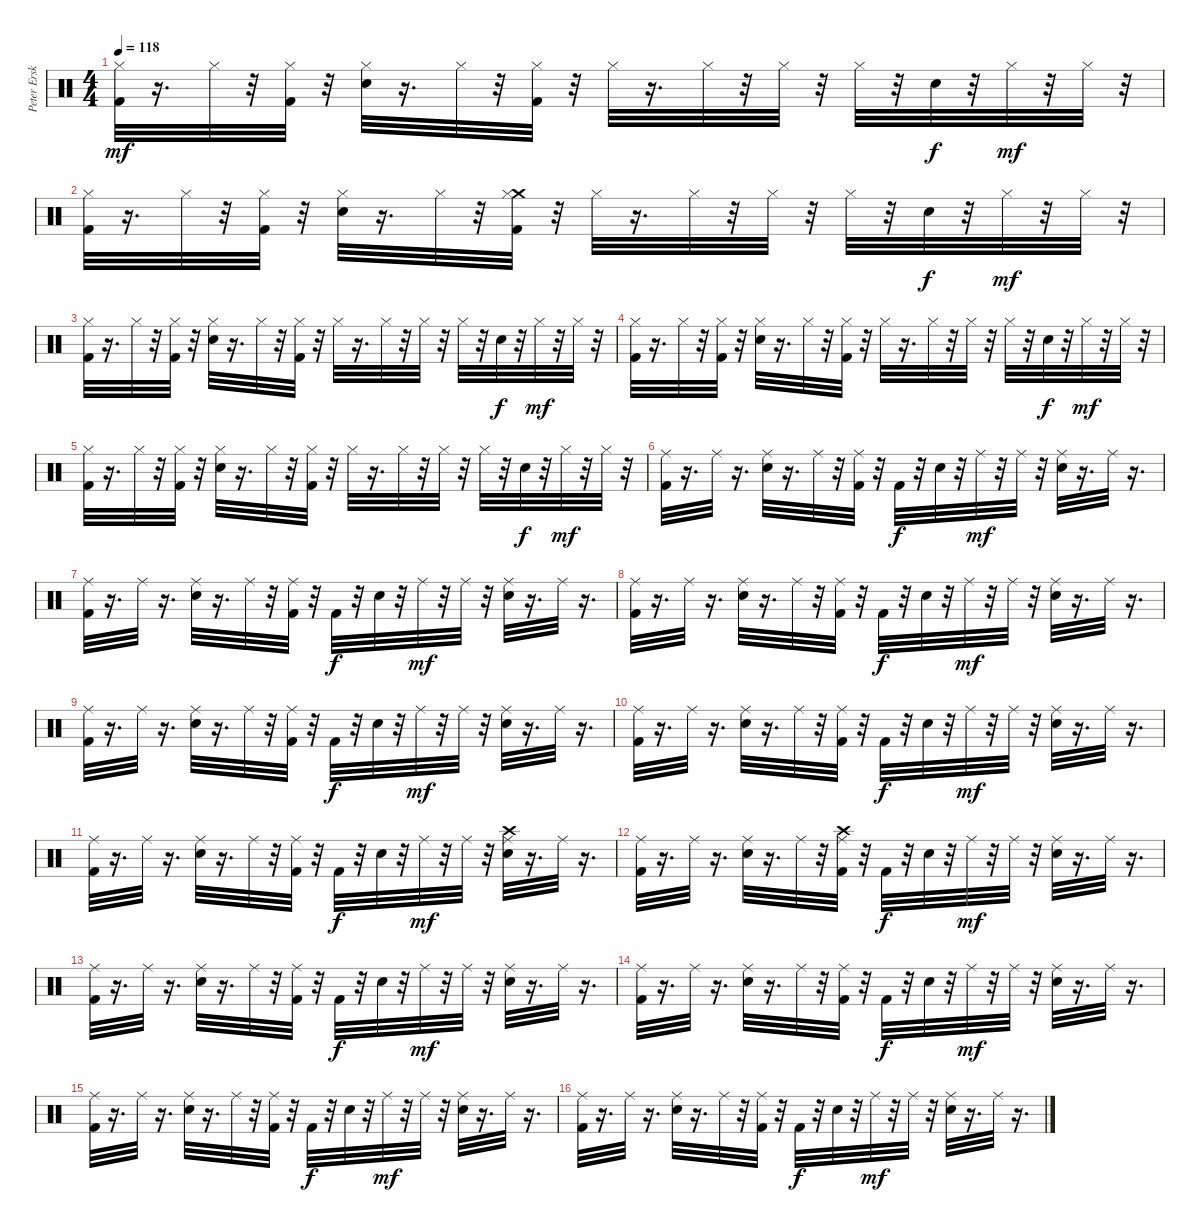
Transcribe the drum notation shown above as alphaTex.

\track ("Peter Erskine" "Peter Ersk") {instrument percussion}
\staff {score}
\articulation defaults
\ts (4 4)
\tempo 118
\clef neutral
\ks c
("Kick (hit) 2" "Hi-Hat (closed)").32{dy mf} r.16{d} "Hi-Hat (closed)".32 r.32 ("Kick (hit) 2" "Hi-Hat (closed)").32 r.32 ("Electric Snare (hit)" "Hi-Hat (closed)").32 r.16{d} "Hi-Hat (closed)".32 r.32 ("Kick (hit) 2" "Hi-Hat (closed)").32 r.32 "Hi-Hat (closed)".32 r.16{d} "Hi-Hat (closed)".32 r.32 "Hi-Hat (closed)".32 r.32 "Hi-Hat (closed)".32 r.32 "Electric Snare (hit)".32{dy f} r.32 "Hi-Hat (closed)".32{dy mf} r.32 "Hi-Hat (closed)".32 r.32 |
("Kick (hit) 2" "Hi-Hat (closed)").32 r.16{d} "Hi-Hat (closed)".32 r.32 ("Kick (hit) 2" "Hi-Hat (closed)").32 r.32 ("Electric Snare (hit)" "Hi-Hat (closed)").32 r.16{d} "Hi-Hat (closed)".32 r.32 ("Kick (hit) 2" "Crash medium (hit)" "Hi-Hat (closed)").32 r.32 "Hi-Hat (closed)".32 r.16{d} "Hi-Hat (closed)".32 r.32 "Hi-Hat (closed)".32 r.32 "Hi-Hat (closed)".32 r.32 "Electric Snare (hit)".32{dy f} r.32 "Hi-Hat (closed)".32{dy mf} r.32 "Hi-Hat (closed)".32 r.32 |
("Kick (hit) 2" "Hi-Hat (closed)").32 r.16{d} "Hi-Hat (closed)".32 r.32 ("Kick (hit) 2" "Hi-Hat (closed)").32 r.32 ("Electric Snare (hit)" "Hi-Hat (closed)").32 r.16{d} "Hi-Hat (closed)".32 r.32 ("Kick (hit) 2" "Hi-Hat (closed)").32 r.32 "Hi-Hat (closed)".32 r.16{d} "Hi-Hat (closed)".32 r.32 "Hi-Hat (closed)".32 r.32 "Hi-Hat (closed)".32 r.32 "Electric Snare (hit)".32{dy f} r.32 "Hi-Hat (closed)".32{dy mf} r.32 "Hi-Hat (closed)".32 r.32 |
("Kick (hit) 2" "Hi-Hat (closed)").32 r.16{d} "Hi-Hat (closed)".32 r.32 ("Kick (hit) 2" "Hi-Hat (closed)").32 r.32 ("Electric Snare (hit)" "Hi-Hat (closed)").32 r.16{d} "Hi-Hat (closed)".32 r.32 ("Kick (hit) 2" "Hi-Hat (closed)").32 r.32 "Hi-Hat (closed)".32 r.16{d} "Hi-Hat (closed)".32 r.32 "Hi-Hat (closed)".32 r.32 "Hi-Hat (closed)".32 r.32 "Electric Snare (hit)".32{dy f} r.32 "Hi-Hat (closed)".32{dy mf} r.32 "Hi-Hat (closed)".32 r.32 |
("Kick (hit) 2" "Hi-Hat (closed)").32 r.16{d} "Hi-Hat (closed)".32 r.32 ("Kick (hit) 2" "Hi-Hat (closed)").32 r.32 ("Electric Snare (hit)" "Hi-Hat (closed)").32 r.16{d} "Hi-Hat (closed)".32 r.32 ("Kick (hit) 2" "Hi-Hat (closed)").32 r.32 "Hi-Hat (closed)".32 r.16{d} "Hi-Hat (closed)".32 r.32 "Hi-Hat (closed)".32 r.32 "Hi-Hat (closed)".32 r.32 "Electric Snare (hit)".32{dy f} r.32 "Hi-Hat (closed)".32{dy mf} r.32 "Hi-Hat (closed)".32 r.32 |
("Kick (hit) 2" "Ride (middle)").32 r.16{d} "Ride (middle)".32 r.16{d} ("Electric Snare (hit)" "Ride (middle)").32 r.16{d} "Ride (middle)".32 r.32 ("Kick (hit) 2" "Ride (middle)").32 r.32 "Kick (hit) 2".32{dy f} r.32 "Electric Snare (hit)".32 r.32 "Ride (middle)".32{dy mf} r.32 "Ride (middle)".32 r.32 ("Electric Snare (hit)" "Ride (middle)").32 r.16{d} "Ride (middle)".32 r.16{d} |
("Kick (hit) 2" "Ride (middle)").32 r.16{d} "Ride (middle)".32 r.16{d} ("Electric Snare (hit)" "Ride (middle)").32 r.16{d} "Ride (middle)".32 r.32 ("Kick (hit) 2" "Ride (middle)").32 r.32 "Kick (hit) 2".32{dy f} r.32 "Electric Snare (hit)".32 r.32 "Ride (middle)".32{dy mf} r.32 "Ride (middle)".32 r.32 ("Electric Snare (hit)" "Ride (middle)").32 r.16{d} "Ride (middle)".32 r.16{d} |
("Kick (hit) 2" "Ride (middle)").32 r.16{d} "Ride (middle)".32 r.16{d} ("Electric Snare (hit)" "Ride (middle)").32 r.16{d} "Ride (middle)".32 r.32 ("Kick (hit) 2" "Ride (middle)").32 r.32 "Kick (hit) 2".32{dy f} r.32 "Electric Snare (hit)".32 r.32 "Ride (middle)".32{dy mf} r.32 "Ride (middle)".32 r.32 ("Electric Snare (hit)" "Ride (middle)").32 r.16{d} "Ride (middle)".32 r.16{d} |
("Kick (hit) 2" "Ride (middle)").32 r.16{d} "Ride (middle)".32 r.16{d} ("Electric Snare (hit)" "Ride (middle)").32 r.16{d} "Ride (middle)".32 r.32 ("Kick (hit) 2" "Ride (middle)").32 r.32 "Kick (hit) 2".32{dy f} r.32 "Electric Snare (hit)".32 r.32 "Ride (middle)".32{dy mf} r.32 "Ride (middle)".32 r.32 ("Electric Snare (hit)" "Ride (middle)").32 r.16{d} "Ride (middle)".32 r.16{d} |
("Kick (hit) 2" "Ride (middle)").32 r.16{d} "Ride (middle)".32 r.16{d} ("Electric Snare (hit)" "Ride (middle)").32 r.16{d} "Ride (middle)".32 r.32 ("Kick (hit) 2" "Ride (middle)").32 r.32 "Kick (hit) 2".32{dy f} r.32 "Electric Snare (hit)".32 r.32 "Ride (middle)".32{dy mf} r.32 "Ride (middle)".32 r.32 ("Electric Snare (hit)" "Ride (middle)").32 r.16{d} "Ride (middle)".32 r.16{d} |
("Kick (hit) 2" "Ride (middle)").32 r.16{d} "Ride (middle)".32 r.16{d} ("Electric Snare (hit)" "Ride (middle)").32 r.16{d} "Ride (middle)".32 r.32 ("Kick (hit) 2" "Ride (middle)").32 r.32 "Kick (hit) 2".32{dy f} r.32 "Electric Snare (hit)".32 r.32 "Ride (middle)".32{dy mf} r.32 "Ride (middle)".32 r.32 ("Electric Snare (hit)" "Crash high (hit)" "Ride (middle)").32 r.16{d} "Ride (middle)".32 r.16{d} |
("Kick (hit) 2" "Ride (middle)").32 r.16{d} "Ride (middle)".32 r.16{d} ("Electric Snare (hit)" "Ride (middle)").32 r.16{d} "Ride (middle)".32 r.32 ("Kick (hit) 2" "Crash high (hit)" "Ride (middle)").32 r.32 "Kick (hit) 2".32{dy f} r.32 "Electric Snare (hit)".32 r.32 "Ride (middle)".32{dy mf} r.32 "Ride (middle)".32 r.32 ("Electric Snare (hit)" "Ride (middle)").32 r.16{d} "Ride (middle)".32 r.16{d} |
("Kick (hit) 2" "Ride (middle)").32 r.16{d} "Ride (middle)".32 r.16{d} ("Electric Snare (hit)" "Ride (middle)").32 r.16{d} "Ride (middle)".32 r.32 ("Kick (hit) 2" "Ride (middle)").32 r.32 "Kick (hit) 2".32{dy f} r.32 "Electric Snare (hit)".32 r.32 "Ride (middle)".32{dy mf} r.32 "Ride (middle)".32 r.32 ("Electric Snare (hit)" "Ride (middle)").32 r.16{d} "Ride (middle)".32 r.16{d} |
("Kick (hit) 2" "Ride (middle)").32 r.16{d} "Ride (middle)".32 r.16{d} ("Electric Snare (hit)" "Ride (middle)").32 r.16{d} "Ride (middle)".32 r.32 ("Kick (hit) 2" "Ride (middle)").32 r.32 "Kick (hit) 2".32{dy f} r.32 "Electric Snare (hit)".32 r.32 "Ride (middle)".32{dy mf} r.32 "Ride (middle)".32 r.32 ("Electric Snare (hit)" "Ride (middle)").32 r.16{d} "Ride (middle)".32 r.16{d} |
("Kick (hit) 2" "Ride (middle)").32 r.16{d} "Ride (middle)".32 r.16{d} ("Electric Snare (hit)" "Ride (middle)").32 r.16{d} "Ride (middle)".32 r.32 ("Kick (hit) 2" "Ride (middle)").32 r.32 "Kick (hit) 2".32{dy f} r.32 "Electric Snare (hit)".32 r.32 "Ride (middle)".32{dy mf} r.32 "Ride (middle)".32 r.32 ("Electric Snare (hit)" "Ride (middle)").32 r.16{d} "Ride (middle)".32 r.16{d} |
("Kick (hit) 2" "Ride (middle)").32 r.16{d} "Ride (middle)".32 r.16{d} ("Electric Snare (hit)" "Ride (middle)").32 r.16{d} "Ride (middle)".32 r.32 ("Kick (hit) 2" "Ride (middle)").32 r.32 "Kick (hit) 2".32{dy f} r.32 "Electric Snare (hit)".32 r.32 "Ride (middle)".32{dy mf} r.32 "Ride (middle)".32 r.32 ("Electric Snare (hit)" "Ride (middle)").32 r.16{d} "Ride (middle)".32 r.16{d}
